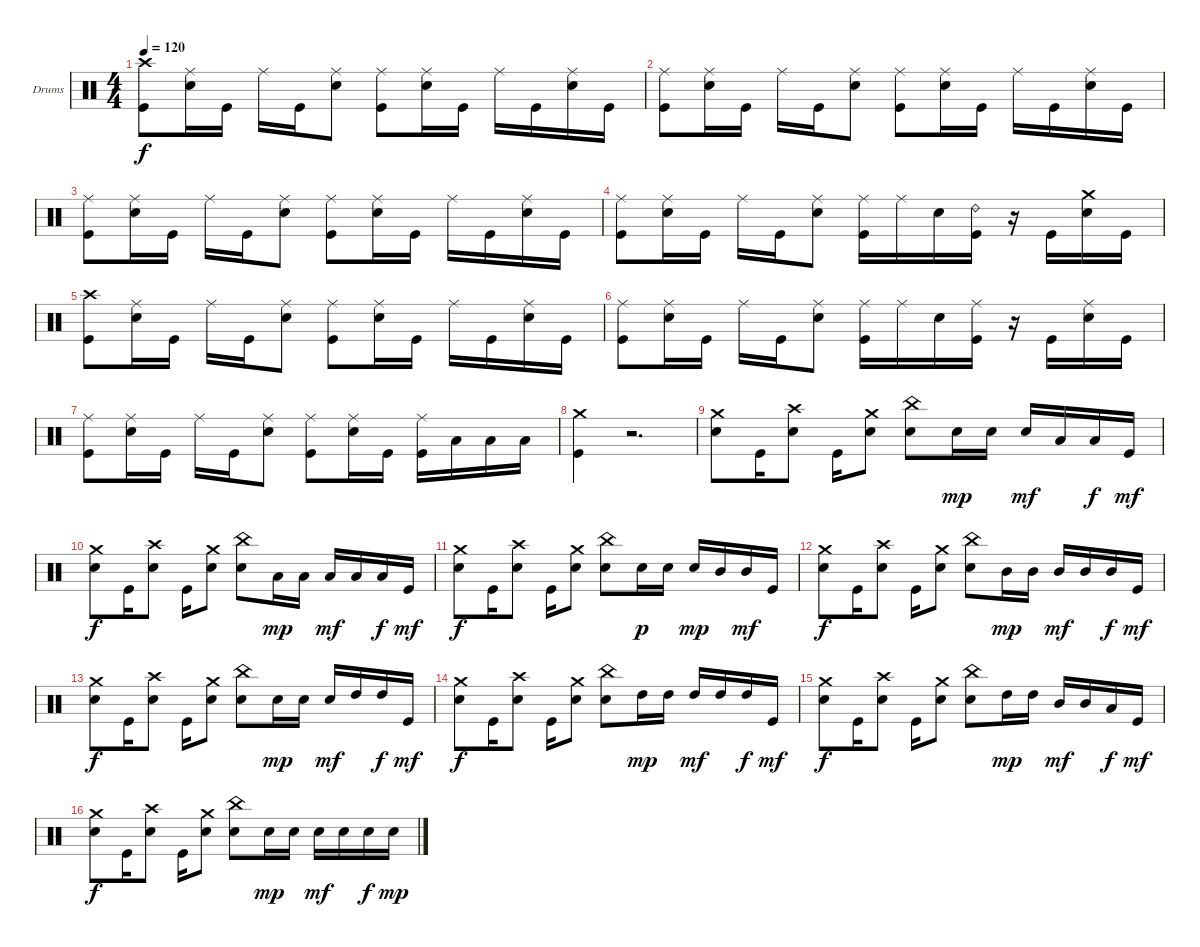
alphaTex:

\bracketExtendMode groupsimilarinstruments
\firstSystemTrackNameOrientation horizontal
\otherSystemsTrackNameOrientation horizontal
\track ("Drumkit" "Drums") {instrument percussion}
\staff {score}
\articulation defaults
\ts (4 4)
\tempo 120
\clef neutral
\ks c
("Crash high (hit)" "Kick (hit)").8{dy f} ("Ride (middle)" "Snare (hit) 2").16 "Kick (hit)".16 "Ride (middle)".16 "Kick (hit)".16 ("Ride (middle)" "Snare (hit) 2").8 ("Ride (middle)" "Kick (hit)").8 ("Ride (middle)" "Snare (hit) 2").16 "Kick (hit)".16 "Ride (middle)".16 "Kick (hit)".16 ("Ride (middle)" "Snare (hit) 2").16 "Kick (hit)".16 |
("Ride (middle)" "Kick (hit)").8 ("Ride (middle)" "Snare (hit) 2").16 "Kick (hit)".16 "Ride (middle)".16 "Kick (hit)".16 ("Ride (middle)" "Snare (hit) 2").8 ("Ride (middle)" "Kick (hit)").8 ("Ride (middle)" "Snare (hit) 2").16 "Kick (hit)".16 "Ride (middle)".16 "Kick (hit)".16 ("Ride (middle)" "Snare (hit) 2").16 "Kick (hit)".16 |
("Ride (middle)" "Kick (hit)").8 ("Ride (middle)" "Snare (hit) 2").16 "Kick (hit)".16 "Ride (middle)".16 "Kick (hit)".16 ("Ride (middle)" "Snare (hit) 2").8 ("Ride (middle)" "Kick (hit)").8 ("Ride (middle)" "Snare (hit) 2").16 "Kick (hit)".16 "Ride (middle)".16 "Kick (hit)".16 ("Ride (middle)" "Snare (hit) 2").16 "Kick (hit)".16 |
("Ride (middle)" "Kick (hit)").8 ("Ride (middle)" "Snare (hit) 2").16 "Kick (hit)".16 "Ride (middle)".16 "Kick (hit)".16 ("Ride (middle)" "Snare (hit) 2").8 ("Ride (middle)" "Kick (hit)").16 "Ride (middle)".16 "Snare (hit) 2".16 ("Ride (bell) 2" "Kick (hit)").16 r.16 "Kick (hit)".16 ("Crash medium (hit)" "Snare (hit) 2").16 "Kick (hit)".16 |
("Crash high (hit)" "Kick (hit)").8 ("Ride (middle)" "Snare (hit) 2").16 "Kick (hit)".16 "Ride (middle)".16 "Kick (hit)".16 ("Ride (middle)" "Snare (hit) 2").8 ("Ride (middle)" "Kick (hit)").8 ("Ride (middle)" "Snare (hit) 2").16 "Kick (hit)".16 "Ride (middle)".16 "Kick (hit)".16 ("Ride (middle)" "Snare (hit) 2").16 "Kick (hit)".16 |
("Ride (middle)" "Kick (hit)").8 ("Ride (middle)" "Snare (hit) 2").16 "Kick (hit)".16 "Ride (middle)".16 "Kick (hit)".16 ("Ride (middle)" "Snare (hit) 2").8 ("Ride (middle)" "Kick (hit)").16 "Ride (middle)".16 "Snare (hit) 2".16 ("Ride (middle)" "Kick (hit)").16 r.16 "Kick (hit)".16 ("Ride (middle)" "Snare (hit) 2").16 "Kick (hit)".16 |
("Ride (middle)" "Kick (hit)").8 ("Ride (middle)" "Snare (hit) 2").16 "Kick (hit)".16 "Ride (middle)".16 "Kick (hit)".16 ("Ride (middle)" "Snare (hit) 2").8 ("Ride (middle)" "Kick (hit)").8 ("Ride (middle)" "Snare (hit) 2").16 "Kick (hit)".16 ("Ride (middle)" "Kick (hit)").16 "Low Tom (hit)".16 "Low Tom (hit)".16 "Low Tom (hit)".16 |
("Crash medium (hit)" "Kick (hit)").4 r.2{d} |
("Crash medium (hit)" "Snare (hit) 2").8 "Kick (hit)".16 ("Crash high (hit)" "Snare (hit) 2").8 "Kick (hit)".16 ("Crash medium (hit)" "Snare (hit) 2").8 ("China (hit)" "Snare (hit) 2").8 "Snare (hit) 2".16{dy mp} "Snare (hit) 2".16 "Snare (hit) 2".16{dy mf} "Low Tom (hit)".16 "Low Tom (hit)".16{dy f} "Kick (hit)".16{dy mf} |
("Crash medium (hit)" "Snare (hit) 2").8{dy f} "Kick (hit)".16 ("Crash high (hit)" "Snare (hit) 2").8 "Kick (hit)".16 ("Crash medium (hit)" "Snare (hit) 2").8 ("China (hit)" "Snare (hit) 2").8 "Low Tom (hit)".16{dy mp} "Low Tom (hit)".16 "Low Tom (hit)".16{dy mf} "Low Tom (hit)".16 "Low Tom (hit)".16{dy f} "Kick (hit)".16{dy mf} |
("Crash medium (hit)" "Snare (hit) 2").8{dy f} "Kick (hit)".16 ("Crash high (hit)" "Snare (hit) 2").8 "Kick (hit)".16 ("Crash medium (hit)" "Snare (hit) 2").8 ("China (hit)" "Snare (hit) 2").8 "Snare (hit) 2".16{dy p} "Snare (hit) 2".16 "Snare (hit) 2".16{dy mp} "Mid Tom (hit)".16 "Mid Tom (hit)".16{dy mf} "Kick (hit)".16 |
("Crash medium (hit)" "Snare (hit) 2").8{dy f} "Kick (hit)".16 ("Crash high (hit)" "Snare (hit) 2").8 "Kick (hit)".16 ("Crash medium (hit)" "Snare (hit) 2").8 ("China (hit)" "Snare (hit) 2").8 "Mid Tom (hit)".16{dy mp} "Mid Tom (hit)".16 "Mid Tom (hit)".16{dy mf} "Mid Tom (hit)".16 "Mid Tom (hit)".16{dy f} "Kick (hit)".16{dy mf} |
("Crash medium (hit)" "Snare (hit) 2").8{dy f} "Kick (hit)".16 ("Crash high (hit)" "Snare (hit) 2").8 "Kick (hit)".16 ("Crash medium (hit)" "Snare (hit) 2").8 ("China (hit)" "Snare (hit) 2").8 "Snare (hit) 2".16{dy mp} "Snare (hit) 2".16 "Snare (hit) 2".16{dy mf} "High Tom (hit)".16 "High Tom (hit)".16{dy f} "Kick (hit)".16{dy mf} |
("Crash medium (hit)" "Snare (hit) 2").8{dy f} "Kick (hit)".16 ("Crash high (hit)" "Snare (hit) 2").8 "Kick (hit)".16 ("Crash medium (hit)" "Snare (hit) 2").8 ("China (hit)" "Snare (hit) 2").8 "High Tom (hit)".16{dy mp} "High Tom (hit)".16 "High Tom (hit)".16{dy mf} "High Tom (hit)".16 "High Tom (hit)".16{dy f} "Kick (hit)".16{dy mf} |
("Crash medium (hit)" "Snare (hit) 2").8{dy f} "Kick (hit)".16 ("Crash high (hit)" "Snare (hit) 2").8 "Kick (hit)".16 ("Crash medium (hit)" "Snare (hit) 2").8 ("China (hit)" "Snare (hit) 2").8 "High Tom (hit)".16{dy mp} "High Tom (hit)".16 "Mid Tom (hit)".16{dy mf} "Mid Tom (hit)".16 "Low Tom (hit)".16{dy f} "Kick (hit)".16{dy mf} |
("Crash medium (hit)" "Snare (hit) 2").8{dy f} "Kick (hit)".16 ("Crash high (hit)" "Snare (hit) 2").8 "Kick (hit)".16 ("Crash medium (hit)" "Snare (hit) 2").8 ("China (hit)" "Snare (hit) 2").8 "Snare (hit) 2".16{dy mp} "Snare (hit) 2".16 "Snare (hit) 2".16{dy mf} "Snare (hit) 2".16 "Snare (hit) 2".16{dy f} "Snare (hit) 2".16{dy mp}
